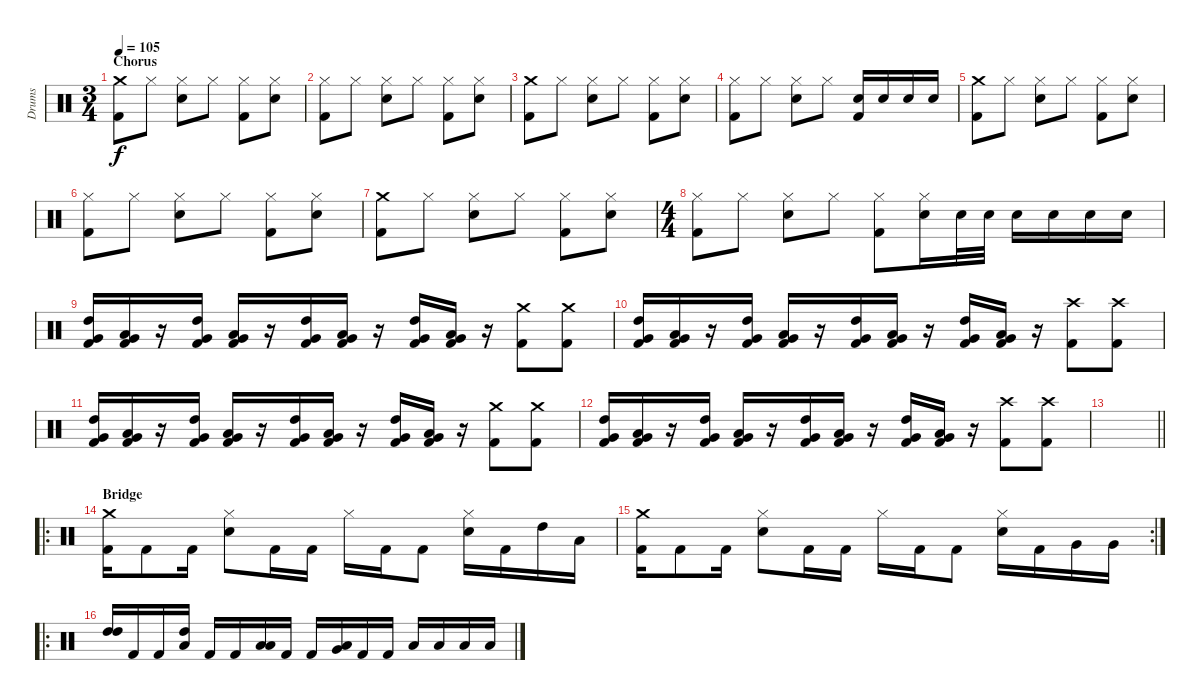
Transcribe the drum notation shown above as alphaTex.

\track ("Drums" "Drums") {instrument percussion}
\staff {score}
\articulation defaults
\ts (3 4)
\section ("" "Chorus")
\tempo 105
\clef neutral
\ks c
("Kick (hit) 2" "Crash medium (hit)").8{dy f} "Hi-Hat (closed)".8 ("Snare (hit) 2" "Hi-Hat (closed)").8 "Hi-Hat (closed)".8 ("Kick (hit) 2" "Hi-Hat (closed)").8 ("Snare (hit) 2" "Hi-Hat (closed)").8 |
("Kick (hit) 2" "Hi-Hat (closed)").8 "Hi-Hat (closed)".8 ("Snare (hit) 2" "Hi-Hat (closed)").8 "Hi-Hat (closed)".8 ("Kick (hit) 2" "Hi-Hat (closed)").8 ("Snare (hit) 2" "Hi-Hat (closed)").8 |
("Kick (hit) 2" "Crash medium (hit)").8 "Hi-Hat (closed)".8 ("Snare (hit) 2" "Hi-Hat (closed)").8 "Hi-Hat (closed)".8 ("Kick (hit) 2" "Hi-Hat (closed)").8 ("Snare (hit) 2" "Hi-Hat (closed)").8 |
("Kick (hit) 2" "Hi-Hat (closed)").8 "Hi-Hat (closed)".8 ("Snare (hit) 2" "Hi-Hat (closed)").8 "Hi-Hat (closed)".8 ("Kick (hit) 2" "Snare (hit) 2").16 "Snare (hit) 2".16 "Snare (hit) 2".16 "Snare (hit) 2".16 |
("Kick (hit) 2" "Crash medium (hit)").8 "Hi-Hat (closed)".8 ("Snare (hit) 2" "Hi-Hat (closed)").8 "Hi-Hat (closed)".8 ("Kick (hit) 2" "Hi-Hat (closed)").8 ("Snare (hit) 2" "Hi-Hat (closed)").8 |
("Kick (hit) 2" "Hi-Hat (closed)").8 "Hi-Hat (closed)".8 ("Snare (hit) 2" "Hi-Hat (closed)").8 "Hi-Hat (closed)".8 ("Kick (hit) 2" "Hi-Hat (closed)").8 ("Snare (hit) 2" "Hi-Hat (closed)").8 |
("Kick (hit) 2" "Crash medium (hit)").8 "Hi-Hat (closed)".8 ("Snare (hit) 2" "Hi-Hat (closed)").8 "Hi-Hat (closed)".8 ("Kick (hit) 2" "Hi-Hat (closed)").8 ("Snare (hit) 2" "Hi-Hat (closed)").8 |
\ts (4 4)
("Kick (hit) 2" "Hi-Hat (closed)").8 "Hi-Hat (closed)".8 ("Snare (hit) 2" "Hi-Hat (closed)").8 "Hi-Hat (closed)".8 ("Kick (hit) 2" "Hi-Hat (closed)").8 ("Snare (hit) 2" "Hi-Hat (closed)").16 "Snare (hit) 2".32 "Snare (hit) 2".32 "Snare (hit) 2".16 "Snare (hit) 2".16 "Snare (hit) 2".16 "Snare (hit) 2".16 |
("Kick (hit) 2" "Very Low Tom (hit)" "High Tom (hit)").16 ("Kick (hit) 2" "Very Low Tom (hit)" "Low Tom (hit)").16 r.16 ("Kick (hit) 2" "Very Low Tom (hit)" "High Tom (hit)").16 ("Kick (hit) 2" "Very Low Tom (hit)" "Low Tom (hit)").16 r.16 ("Kick (hit) 2" "Very Low Tom (hit)" "High Tom (hit)").16 ("Kick (hit) 2" "Very Low Tom (hit)" "Low Tom (hit)").16 r.16 ("Kick (hit) 2" "Very Low Tom (hit)" "High Tom (hit)").16 ("Kick (hit) 2" "Very Low Tom (hit)" "Low Tom (hit)").16 r.16 ("Kick (hit) 2" "Crash medium (hit)").8 ("Kick (hit) 2" "Crash medium (hit)").8 |
("Kick (hit) 2" "Very Low Tom (hit)" "High Tom (hit)").16 ("Kick (hit) 2" "Very Low Tom (hit)" "Low Tom (hit)").16 r.16 ("Kick (hit) 2" "Very Low Tom (hit)" "High Tom (hit)").16 ("Kick (hit) 2" "Very Low Tom (hit)" "Low Tom (hit)").16 r.16 ("Kick (hit) 2" "Very Low Tom (hit)" "High Tom (hit)").16 ("Kick (hit) 2" "Very Low Tom (hit)" "Low Tom (hit)").16 r.16 ("Kick (hit) 2" "Very Low Tom (hit)" "High Tom (hit)").16 ("Kick (hit) 2" "Very Low Tom (hit)" "Low Tom (hit)").16 r.16 ("Kick (hit) 2" "Crash high (hit)").8 ("Kick (hit) 2" "Crash high (hit)").8 |
("Kick (hit) 2" "Very Low Tom (hit)" "High Tom (hit)").16 ("Kick (hit) 2" "Very Low Tom (hit)" "Low Tom (hit)").16 r.16 ("Kick (hit) 2" "Very Low Tom (hit)" "High Tom (hit)").16 ("Kick (hit) 2" "Very Low Tom (hit)" "Low Tom (hit)").16 r.16 ("Kick (hit) 2" "Very Low Tom (hit)" "High Tom (hit)").16 ("Kick (hit) 2" "Very Low Tom (hit)" "Low Tom (hit)").16 r.16 ("Kick (hit) 2" "Very Low Tom (hit)" "High Tom (hit)").16 ("Kick (hit) 2" "Very Low Tom (hit)" "Low Tom (hit)").16 r.16 ("Kick (hit) 2" "Crash medium (hit)").8 ("Kick (hit) 2" "Crash medium (hit)").8 |
("Kick (hit) 2" "Very Low Tom (hit)" "High Tom (hit)").16 ("Kick (hit) 2" "Very Low Tom (hit)" "Low Tom (hit)").16 r.16 ("Kick (hit) 2" "Very Low Tom (hit)" "High Tom (hit)").16 ("Kick (hit) 2" "Very Low Tom (hit)" "Low Tom (hit)").16 r.16 ("Kick (hit) 2" "Very Low Tom (hit)" "High Tom (hit)").16 ("Kick (hit) 2" "Very Low Tom (hit)" "Low Tom (hit)").16 r.16 ("Kick (hit) 2" "Very Low Tom (hit)" "High Tom (hit)").16 ("Kick (hit) 2" "Very Low Tom (hit)" "Low Tom (hit)").16 r.16 ("Kick (hit) 2" "Crash high (hit)").8 ("Kick (hit) 2" "Crash high (hit)").8 |
\barLineRight lightlight
|
\ro
\section ("" "Bridge")
("Kick (hit) 2" "Crash medium (hit)").16 "Kick (hit) 2".8 "Kick (hit) 2".16 ("Snare (hit) 2" "Hi-Hat (closed)").8 "Kick (hit) 2".16 "Kick (hit) 2".16 "Hi-Hat (closed)".16 "Kick (hit) 2".16 "Kick (hit) 2".8 ("Snare (hit) 2" "Hi-Hat (closed)").16 "Kick (hit) 2".16 "High Tom (hit)".16 "Low Tom (hit)".16 |
\rc 2
("Kick (hit) 2" "Crash medium (hit)").16 "Kick (hit) 2".8 "Kick (hit) 2".16 ("Snare (hit) 2" "Hi-Hat (closed)").8 "Kick (hit) 2".16 "Kick (hit) 2".16 "Hi-Hat (closed)".16 "Kick (hit) 2".16 "Kick (hit) 2".8 ("Snare (hit) 2" "Hi-Hat (closed)").16 "Kick (hit) 2".16 "Very Low Tom (hit)".16 "Very Low Tom (hit)".16 |
\ro
("High Tom (hit)" "High Tom (hit)").16 "Kick (hit) 2".16 "Kick (hit) 2".16 ("High Tom (hit)" "Low Tom (hit)").16 "Kick (hit) 2".16 "Kick (hit) 2".16 ("Low Tom (hit)" "Low Tom (hit)").16 "Kick (hit) 2".16 "Kick (hit) 2".16 ("Low Tom (hit)" "Very Low Tom (hit)").16 "Kick (hit) 2".16 "Kick (hit) 2".16 "Low Tom (hit)".16 "Low Tom (hit)".16 "Low Tom (hit)".16 "Low Tom (hit)".16
